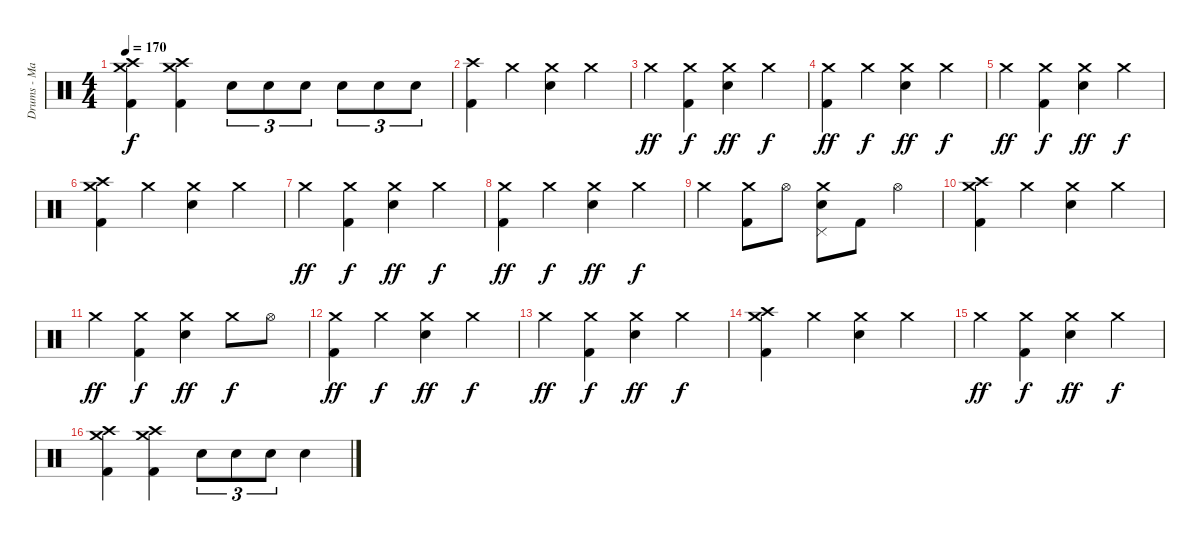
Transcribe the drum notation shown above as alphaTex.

\track ("Drums - Mario Duplantier" "Drums - Ma") {instrument percussion}
\staff {score}
\articulation defaults
\ts (4 4)
\tempo 170
\clef neutral
\ks c
("Crash medium (hit)" "Crash high (hit)" "Kick (hit) 2").4{dy f} ("Crash medium (hit)" "Crash high (hit)" "Kick (hit) 2").4 "Snare (hit) 2".8{tu (3 2)} "Snare (hit) 2".8{tu (3 2)} "Snare (hit) 2".8{tu (3 2)} "Snare (hit) 2".8{tu (3 2)} "Snare (hit) 2".8{tu (3 2)} "Snare (hit) 2".8{tu (3 2)} |
("Crash high (hit)" "Kick (hit) 2").4 "Crash medium (hit)".4 ("Crash medium (hit)" "Snare (hit) 2").4 "Crash medium (hit)".4 |
"Crash medium (hit)".4{dy ff} ("Crash medium (hit)" "Kick (hit) 2").4{dy f} ("Crash medium (hit)" "Snare (hit) 2").4{dy ff} "Crash medium (hit)".4{dy f} |
("Crash medium (hit)" "Kick (hit) 2").4{dy ff} "Crash medium (hit)".4{dy f} ("Crash medium (hit)" "Snare (hit) 2").4{dy ff} "Crash medium (hit)".4{dy f} |
"Crash medium (hit)".4{dy ff} ("Crash medium (hit)" "Kick (hit) 2").4{dy f} ("Crash medium (hit)" "Snare (hit) 2").4{dy ff} "Crash medium (hit)".4{dy f} |
("Crash medium (hit)" "Crash high (hit)" "Kick (hit) 2").4 "Crash medium (hit)".4 ("Crash medium (hit)" "Snare (hit) 2").4 "Crash medium (hit)".4 |
"Crash medium (hit)".4{dy ff} ("Crash medium (hit)" "Kick (hit) 2").4{dy f} ("Crash medium (hit)" "Snare (hit) 2").4{dy ff} "Crash medium (hit)".4{dy f} |
("Crash medium (hit)" "Kick (hit) 2").4{dy ff} "Crash medium (hit)".4{dy f} ("Crash medium (hit)" "Snare (hit) 2").4{dy ff} "Crash medium (hit)".4{dy f} |
"Crash medium (hit)".4 ("Crash medium (hit)" "Kick (hit) 2").8 "Hi-Hat (open)".8 ("Crash medium (hit)" "Snare (hit) 2" "Pedal Hi-Hat (hit)").8 "Kick (hit) 2".8 "Hi-Hat (open)".4 |
("Crash medium (hit)" "Crash high (hit)" "Kick (hit) 2").4 "Crash medium (hit)".4 ("Crash medium (hit)" "Snare (hit) 2").4 "Crash medium (hit)".4 |
"Crash medium (hit)".4{dy ff} ("Crash medium (hit)" "Kick (hit) 2").4{dy f} ("Crash medium (hit)" "Snare (hit) 2").4{dy ff} "Crash medium (hit)".8{dy f} "Hi-Hat (open)".8 |
("Crash medium (hit)" "Kick (hit) 2").4{dy ff} "Crash medium (hit)".4{dy f} ("Crash medium (hit)" "Snare (hit) 2").4{dy ff} "Crash medium (hit)".4{dy f} |
"Crash medium (hit)".4{dy ff} ("Crash medium (hit)" "Kick (hit) 2").4{dy f} ("Crash medium (hit)" "Snare (hit) 2").4{dy ff} "Crash medium (hit)".4{dy f} |
("Crash medium (hit)" "Crash high (hit)" "Kick (hit) 2").4 "Crash medium (hit)".4 ("Crash medium (hit)" "Snare (hit) 2").4 "Crash medium (hit)".4 |
"Crash medium (hit)".4{dy ff} ("Crash medium (hit)" "Kick (hit) 2").4{dy f} ("Crash medium (hit)" "Snare (hit) 2").4{dy ff} "Crash medium (hit)".4{dy f} |
("Crash medium (hit)" "Crash high (hit)" "Kick (hit) 2").4 ("Crash medium (hit)" "Crash high (hit)" "Kick (hit) 2").4 "Snare (hit) 2".8{tu (3 2)} "Snare (hit) 2".8{tu (3 2)} "Snare (hit) 2".8{tu (3 2)} "Snare (hit) 2".4
